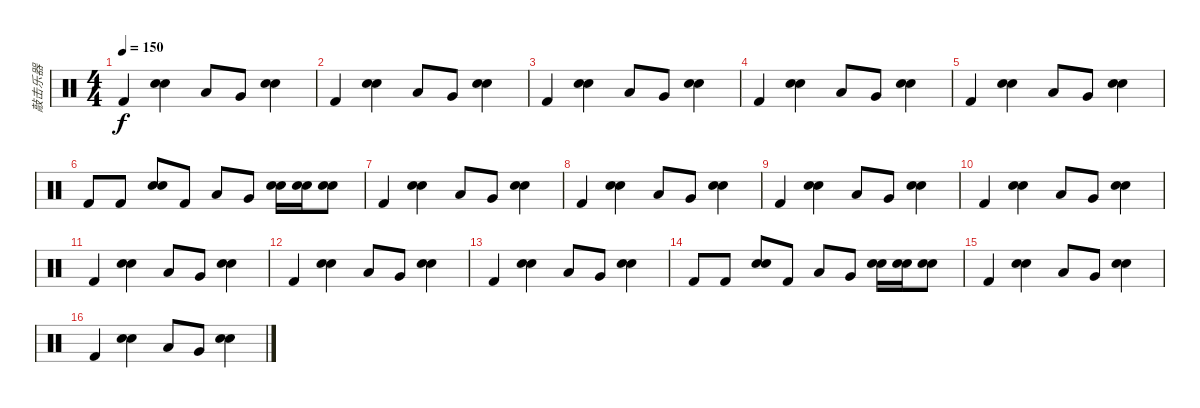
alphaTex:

\track ("敲击乐器" "敲击乐器") {instrument percussion}
\staff {score}
\articulation defaults
\ts (4 4)
\tempo 150
\clef neutral
\ks c "Kick (hit) 2".4{dy f}
("Electric Snare (hit)" "Snare (hit) 2").4 "Low Tom (hit)".8 "Very Low Tom (hit)".8 ("Electric Snare (hit)" "Snare (hit) 2").4 |
"Kick (hit) 2".4 ("Electric Snare (hit)" "Snare (hit) 2").4 "Low Tom (hit)".8 "Very Low Tom (hit)".8 ("Electric Snare (hit)" "Snare (hit) 2").4 |
"Kick (hit) 2".4 ("Electric Snare (hit)" "Snare (hit) 2").4 "Low Tom (hit)".8 "Very Low Tom (hit)".8 ("Electric Snare (hit)" "Snare (hit) 2").4 |
"Kick (hit) 2".4 ("Electric Snare (hit)" "Snare (hit) 2").4 "Low Tom (hit)".8 "Very Low Tom (hit)".8 ("Electric Snare (hit)" "Snare (hit) 2").4 |
"Kick (hit) 2".4 ("Electric Snare (hit)" "Snare (hit) 2").4 "Low Tom (hit)".8 "Very Low Tom (hit)".8 ("Electric Snare (hit)" "Snare (hit) 2").4 |
"Kick (hit) 2".8 "Kick (hit) 2".8 ("Electric Snare (hit)" "Snare (hit) 2").8 "Kick (hit) 2".8 "Low Tom (hit)".8 "Very Low Tom (hit)".8 ("Electric Snare (hit)" "Snare (hit) 2").16 ("Electric Snare (hit)" "Snare (hit) 2").16 ("Electric Snare (hit)" "Snare (hit) 2").8 |
"Kick (hit) 2".4 ("Electric Snare (hit)" "Snare (hit) 2").4 "Low Tom (hit)".8 "Very Low Tom (hit)".8 ("Electric Snare (hit)" "Snare (hit) 2").4 |
"Kick (hit) 2".4 ("Electric Snare (hit)" "Snare (hit) 2").4 "Low Tom (hit)".8 "Very Low Tom (hit)".8 ("Electric Snare (hit)" "Snare (hit) 2").4 |
"Kick (hit) 2".4 ("Electric Snare (hit)" "Snare (hit) 2").4 "Low Tom (hit)".8 "Very Low Tom (hit)".8 ("Electric Snare (hit)" "Snare (hit) 2").4 |
"Kick (hit) 2".4 ("Electric Snare (hit)" "Snare (hit) 2").4 "Low Tom (hit)".8 "Very Low Tom (hit)".8 ("Electric Snare (hit)" "Snare (hit) 2").4 |
"Kick (hit) 2".4 ("Electric Snare (hit)" "Snare (hit) 2").4 "Low Tom (hit)".8 "Very Low Tom (hit)".8 ("Electric Snare (hit)" "Snare (hit) 2").4 |
"Kick (hit) 2".4 ("Electric Snare (hit)" "Snare (hit) 2").4 "Low Tom (hit)".8 "Very Low Tom (hit)".8 ("Electric Snare (hit)" "Snare (hit) 2").4 |
"Kick (hit) 2".4 ("Electric Snare (hit)" "Snare (hit) 2").4 "Low Tom (hit)".8 "Very Low Tom (hit)".8 ("Electric Snare (hit)" "Snare (hit) 2").4 |
"Kick (hit) 2".8 "Kick (hit) 2".8 ("Electric Snare (hit)" "Snare (hit) 2").8 "Kick (hit) 2".8 "Low Tom (hit)".8 "Very Low Tom (hit)".8 ("Electric Snare (hit)" "Snare (hit) 2").16 ("Electric Snare (hit)" "Snare (hit) 2").16 ("Electric Snare (hit)" "Snare (hit) 2").8 |
"Kick (hit) 2".4 ("Electric Snare (hit)" "Snare (hit) 2").4 "Low Tom (hit)".8 "Very Low Tom (hit)".8 ("Electric Snare (hit)" "Snare (hit) 2").4 |
"Kick (hit) 2".4 ("Electric Snare (hit)" "Snare (hit) 2").4 "Low Tom (hit)".8 "Very Low Tom (hit)".8 ("Electric Snare (hit)" "Snare (hit) 2").4
